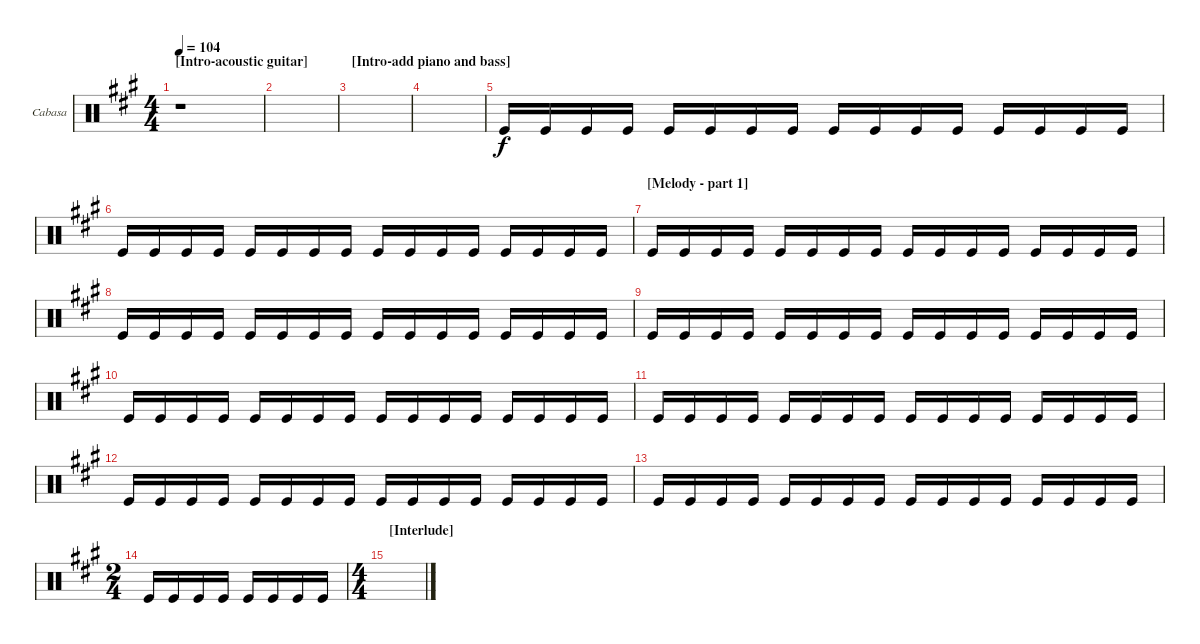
\bracketExtendMode groupsimilarinstruments
\firstSystemTrackNameOrientation horizontal
\otherSystemsTrackNameOrientation horizontal
\track ("Cabasa" "Cabasa") {instrument percussion}
\staff {score}
\articulation defaults
\ts (4 4)
\beaming (8 2 2 2 2)
\section ("" "[Intro-acoustic guitar]")
\tempo 104
\clef neutral
\ks a
r.1{dy f} |
|
\section ("" "[Intro-add piano and bass]")
|
|
"Kick (hit)".16 "Kick (hit)".16 "Kick (hit)".16 "Kick (hit)".16 "Kick (hit)".16 "Kick (hit)".16 "Kick (hit)".16 "Kick (hit)".16 "Kick (hit)".16 "Kick (hit)".16 "Kick (hit)".16 "Kick (hit)".16 "Kick (hit)".16 "Kick (hit)".16 "Kick (hit)".16 "Kick (hit)".16 |
"Kick (hit)".16 "Kick (hit)".16 "Kick (hit)".16 "Kick (hit)".16 "Kick (hit)".16 "Kick (hit)".16 "Kick (hit)".16 "Kick (hit)".16 "Kick (hit)".16 "Kick (hit)".16 "Kick (hit)".16 "Kick (hit)".16 "Kick (hit)".16 "Kick (hit)".16 "Kick (hit)".16 "Kick (hit)".16 |
\section ("" "[Melody - part 1]")
"Kick (hit)".16 "Kick (hit)".16 "Kick (hit)".16 "Kick (hit)".16 "Kick (hit)".16 "Kick (hit)".16 "Kick (hit)".16 "Kick (hit)".16 "Kick (hit)".16 "Kick (hit)".16 "Kick (hit)".16 "Kick (hit)".16 "Kick (hit)".16 "Kick (hit)".16 "Kick (hit)".16 "Kick (hit)".16 |
"Kick (hit)".16 "Kick (hit)".16 "Kick (hit)".16 "Kick (hit)".16 "Kick (hit)".16 "Kick (hit)".16 "Kick (hit)".16 "Kick (hit)".16 "Kick (hit)".16 "Kick (hit)".16 "Kick (hit)".16 "Kick (hit)".16 "Kick (hit)".16 "Kick (hit)".16 "Kick (hit)".16 "Kick (hit)".16 |
"Kick (hit)".16 "Kick (hit)".16 "Kick (hit)".16 "Kick (hit)".16 "Kick (hit)".16 "Kick (hit)".16 "Kick (hit)".16 "Kick (hit)".16 "Kick (hit)".16 "Kick (hit)".16 "Kick (hit)".16 "Kick (hit)".16 "Kick (hit)".16 "Kick (hit)".16 "Kick (hit)".16 "Kick (hit)".16 |
"Kick (hit)".16 "Kick (hit)".16 "Kick (hit)".16 "Kick (hit)".16 "Kick (hit)".16 "Kick (hit)".16 "Kick (hit)".16 "Kick (hit)".16 "Kick (hit)".16 "Kick (hit)".16 "Kick (hit)".16 "Kick (hit)".16 "Kick (hit)".16 "Kick (hit)".16 "Kick (hit)".16 "Kick (hit)".16 |
"Kick (hit)".16 "Kick (hit)".16 "Kick (hit)".16 "Kick (hit)".16 "Kick (hit)".16 "Kick (hit)".16 "Kick (hit)".16 "Kick (hit)".16 "Kick (hit)".16 "Kick (hit)".16 "Kick (hit)".16 "Kick (hit)".16 "Kick (hit)".16 "Kick (hit)".16 "Kick (hit)".16 "Kick (hit)".16 |
"Kick (hit)".16 "Kick (hit)".16 "Kick (hit)".16 "Kick (hit)".16 "Kick (hit)".16 "Kick (hit)".16 "Kick (hit)".16 "Kick (hit)".16 "Kick (hit)".16 "Kick (hit)".16 "Kick (hit)".16 "Kick (hit)".16 "Kick (hit)".16 "Kick (hit)".16 "Kick (hit)".16 "Kick (hit)".16 |
"Kick (hit)".16 "Kick (hit)".16 "Kick (hit)".16 "Kick (hit)".16 "Kick (hit)".16 "Kick (hit)".16 "Kick (hit)".16 "Kick (hit)".16 "Kick (hit)".16 "Kick (hit)".16 "Kick (hit)".16 "Kick (hit)".16 "Kick (hit)".16 "Kick (hit)".16 "Kick (hit)".16 "Kick (hit)".16 |
\ts (2 4)
"Kick (hit)".16 "Kick (hit)".16 "Kick (hit)".16 "Kick (hit)".16 "Kick (hit)".16 "Kick (hit)".16 "Kick (hit)".16 "Kick (hit)".16 |
\ts (4 4)
\section ("" "[Interlude] ")
